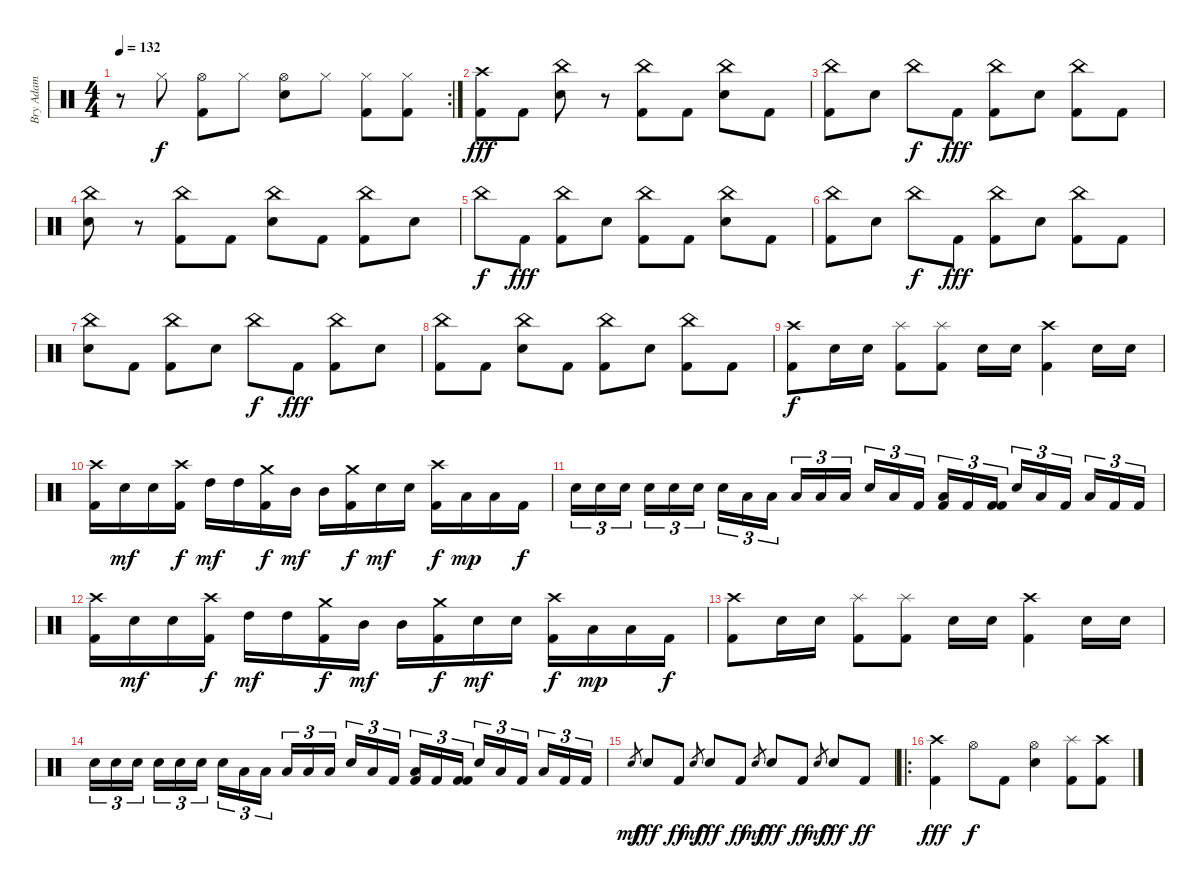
\track ("Bry Adam" "Bry Adam") {instrument percussion}
\staff {score}
\articulation defaults
\rc 2
\ts (4 4)
\tempo 132
\clef neutral
\ks c
r.8{dy f} "Hi-Hat (closed)".8 ("Hi-Hat (open)" "Kick (hit) 2").8 "Hi-Hat (closed)".8 ("Hi-Hat (open)" "Snare (hit) 2").8 "Hi-Hat (closed)".8 ("Hi-Hat (closed)" "Kick (hit) 2").8 ("Hi-Hat (closed)" "Kick (hit) 2").8 |
("Crash high (hit)" "Kick (hit) 2").8{dy fff} "Kick (hit) 2".8 ("China (hit)" "Snare (hit) 2").8 r.8 ("China (hit)" "Kick (hit) 2").8 "Kick (hit) 2".8 ("China (hit)" "Snare (hit) 2").8 "Kick (hit) 2".8 |
("China (hit)" "Kick (hit) 2").8 "Snare (hit) 2".8 "China (hit)".8{dy f} "Kick (hit) 2".8{dy fff} ("China (hit)" "Kick (hit) 2").8 "Snare (hit) 2".8 ("China (hit)" "Kick (hit) 2").8 "Kick (hit) 2".8 |
("China (hit)" "Snare (hit) 2").8 r.8 ("China (hit)" "Kick (hit) 2").8 "Kick (hit) 2".8 ("China (hit)" "Snare (hit) 2").8 "Kick (hit) 2".8 ("China (hit)" "Kick (hit) 2").8 "Snare (hit) 2".8 |
"China (hit)".8{dy f} "Kick (hit) 2".8{dy fff} ("China (hit)" "Kick (hit) 2").8 "Snare (hit) 2".8 ("China (hit)" "Kick (hit) 2").8 "Kick (hit) 2".8 ("China (hit)" "Snare (hit) 2").8 "Kick (hit) 2".8 |
("China (hit)" "Kick (hit) 2").8 "Snare (hit) 2".8 "China (hit)".8{dy f} "Kick (hit) 2".8{dy fff} ("China (hit)" "Kick (hit) 2").8 "Snare (hit) 2".8 ("China (hit)" "Kick (hit) 2").8 "Kick (hit) 2".8 |
("China (hit)" "Snare (hit) 2").8 "Kick (hit) 2".8 ("China (hit)" "Kick (hit) 2").8 "Snare (hit) 2".8 "China (hit)".8{dy f} "Kick (hit) 2".8{dy fff} ("China (hit)" "Kick (hit) 2").8 "Snare (hit) 2".8 |
("China (hit)" "Kick (hit) 2").8 "Kick (hit) 2".8 ("China (hit)" "Snare (hit) 2").8 "Kick (hit) 2".8 ("China (hit)" "Kick (hit) 2").8 "Snare (hit) 2".8 ("China (hit)" "Kick (hit) 2").8 "Kick (hit) 2".8 |
("Crash high (hit)" "Kick (hit) 2").8{dy f} "Snare (hit) 2".16 "Snare (hit) 2".16 ("Splash (hit)" "Kick (hit) 2").8 ("Splash (hit)" "Kick (hit) 2").8 "Snare (hit) 2".16 "Snare (hit) 2".16 ("Crash high (hit)" "Kick (hit) 2").4 "Snare (hit) 2".16 "Snare (hit) 2".16 |
("Crash high (hit)" "Kick (hit) 2").16 "Snare (hit) 2".16{dy mf} "Snare (hit) 2".16 ("Crash high (hit)" "Kick (hit) 2").16{dy f} "High Tom (hit)".16{dy mf} "High Tom (hit)".16 ("Crash medium (hit)" "Kick (hit) 2").16{dy f} "Mid Tom (hit)".16{dy mf} "Mid Tom (hit)".16 ("Crash medium (hit)" "Kick (hit) 2").16{dy f} "Snare (hit) 2".16{dy mf} "Snare (hit) 2".16 ("Crash high (hit)" "Kick (hit) 2").16{dy f} "Low Tom (hit)".16{dy mp} "Low Tom (hit)".16 "Kick (hit) 2".16{dy f} |
"Snare (hit) 2".16{tu (3 2)} "Snare (hit) 2".16{tu (3 2)} "Snare (hit) 2".16{tu (3 2)} "Snare (hit) 2".16{tu (3 2)} "Snare (hit) 2".16{tu (3 2)} "Snare (hit) 2".16{tu (3 2)} "Snare (hit) 2".16{tu (3 2)} "Low Tom (hit)".16{tu (3 2)} "Low Tom (hit)".16{tu (3 2)} "Low Tom (hit)".16{tu (3 2)} "Low Tom (hit)".16{tu (3 2)} "Low Tom (hit)".16{tu (3 2)} "Snare (hit) 2".16{tu (3 2)} "Low Tom (hit)".16{tu (3 2)} "Kick (hit) 2".16{tu (3 2)} ("Low Tom (hit)" "Kick (hit) 2").16{tu (3 2)} "Kick (hit) 2".16{tu (3 2)} ("Kick (hit) 2" "Kick (hit) 2").16{tu (3 2)} "Snare (hit) 2".16{tu (3 2)} "Low Tom (hit)".16{tu (3 2)} "Kick (hit) 2".16{tu (3 2)} "Low Tom (hit)".16{tu (3 2)} "Kick (hit) 2".16{tu (3 2)} "Kick (hit) 2".16{tu (3 2)} |
("Crash high (hit)" "Kick (hit) 2").16 "Snare (hit) 2".16{dy mf} "Snare (hit) 2".16 ("Crash high (hit)" "Kick (hit) 2").16{dy f} "High Tom (hit)".16{dy mf} "High Tom (hit)".16 ("Crash medium (hit)" "Kick (hit) 2").16{dy f} "Mid Tom (hit)".16{dy mf} "Mid Tom (hit)".16 ("Crash medium (hit)" "Kick (hit) 2").16{dy f} "Snare (hit) 2".16{dy mf} "Snare (hit) 2".16 ("Crash high (hit)" "Kick (hit) 2").16{dy f} "Low Tom (hit)".16{dy mp} "Low Tom (hit)".16 "Kick (hit) 2".16{dy f} |
("Crash high (hit)" "Kick (hit) 2").8 "Snare (hit) 2".16 "Snare (hit) 2".16 ("Splash (hit)" "Kick (hit) 2").8 ("Splash (hit)" "Kick (hit) 2").8 "Snare (hit) 2".16 "Snare (hit) 2".16 ("Crash high (hit)" "Kick (hit) 2").4 "Snare (hit) 2".16 "Snare (hit) 2".16 |
"Snare (hit) 2".16{tu (3 2)} "Snare (hit) 2".16{tu (3 2)} "Snare (hit) 2".16{tu (3 2)} "Snare (hit) 2".16{tu (3 2)} "Snare (hit) 2".16{tu (3 2)} "Snare (hit) 2".16{tu (3 2)} "Snare (hit) 2".16{tu (3 2)} "Low Tom (hit)".16{tu (3 2)} "Low Tom (hit)".16{tu (3 2)} "Low Tom (hit)".16{tu (3 2)} "Low Tom (hit)".16{tu (3 2)} "Low Tom (hit)".16{tu (3 2)} "Snare (hit) 2".16{tu (3 2)} "Low Tom (hit)".16{tu (3 2)} "Kick (hit) 2".16{tu (3 2)} ("Low Tom (hit)" "Kick (hit) 2").16{tu (3 2)} "Kick (hit) 2".16{tu (3 2)} ("Kick (hit) 2" "Kick (hit) 2").16{tu (3 2)} "Snare (hit) 2".16{tu (3 2)} "Low Tom (hit)".16{tu (3 2)} "Kick (hit) 2".16{tu (3 2)} "Low Tom (hit)".16{tu (3 2)} "Kick (hit) 2".16{tu (3 2)} "Kick (hit) 2".16{tu (3 2)} |
"Snare (hit) 2".8{gr dy mf} "Snare (hit) 2".8{dy fff} "Kick (hit) 2".8{dy ff} "Snare (hit) 2".8{gr dy mf} "Snare (hit) 2".8{dy fff} "Kick (hit) 2".8{dy ff} "Snare (hit) 2".8{gr dy mf} "Snare (hit) 2".8{dy fff} "Kick (hit) 2".8{dy ff} "Snare (hit) 2".8{gr dy mf} "Snare (hit) 2".8{dy fff} "Kick (hit) 2".8{dy ff} |
\ro
("Crash high (hit)" "Kick (hit) 2").4{dy fff} "Hi-Hat (open)".8{dy f} "Kick (hit) 2".8 ("Hi-Hat (open)" "Snare (hit) 2").4 ("Splash (hit)" "Kick (hit) 2").8 ("Crash high (hit)" "Kick (hit) 2").8
